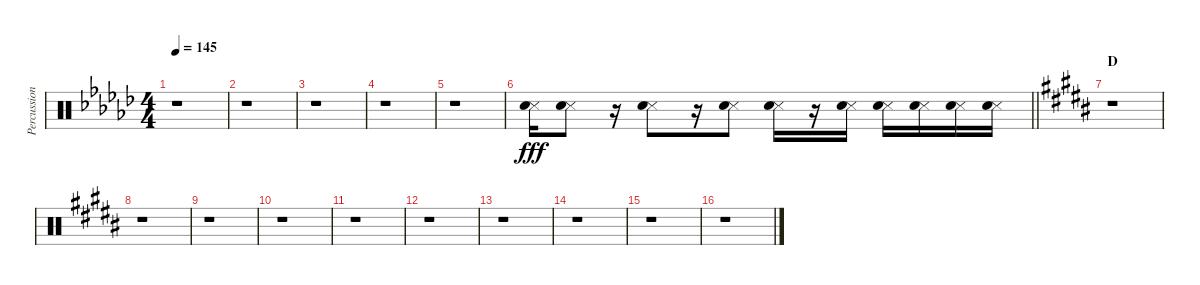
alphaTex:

\track ("Percussion" "Percussion") {instrument percussion}
\staff {score}
\articulation defaults
\ts (4 4)
\tempo 145
\clef neutral
\ks gb
r.1{dy fff} |
r.1 |
r.1 |
r.1 |
r.1 |
\barLineRight lightlight
("Snare (side stick) 3" "Hand Clap (hit)").16 ("Snare (side stick) 3" "Hand Clap (hit)").8 r.16 ("Snare (side stick) 3" "Hand Clap (hit)").8 r.16 ("Snare (side stick) 3" "Hand Clap (hit)").8 ("Snare (side stick) 3" "Hand Clap (hit)").16 r.16 ("Snare (side stick) 3" "Hand Clap (hit)").16 ("Snare (side stick) 3" "Hand Clap (hit)").16 ("Snare (side stick) 3" "Hand Clap (hit)").16 ("Snare (side stick) 3" "Hand Clap (hit)").16 ("Snare (side stick) 3" "Hand Clap (hit)").16 |
\section ("" "D")
\ks b
r.1 |
r.1 |
r.1 |
r.1 |
r.1 |
r.1 |
r.1 |
r.1 |
r.1 |
r.1
